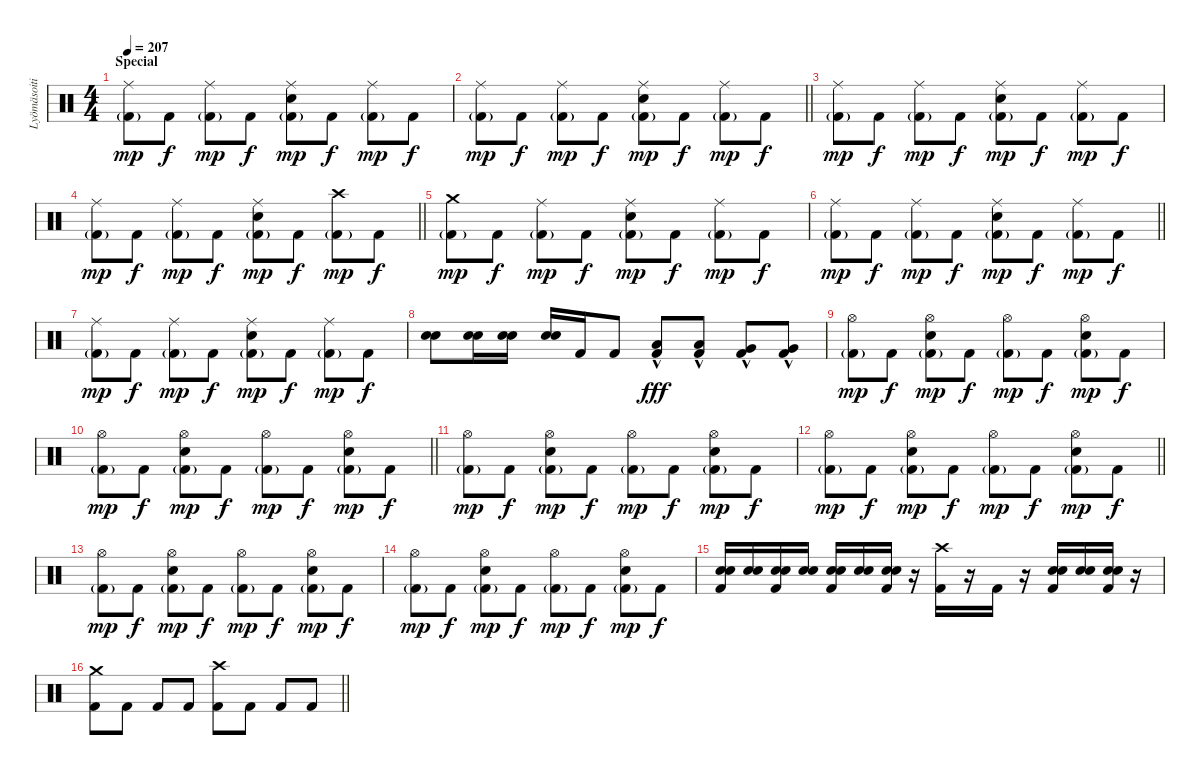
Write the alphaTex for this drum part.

\track ("Lyömäsoitin" "Lyömäsoiti") {instrument percussion}
\staff {score}
\articulation defaults
\ts (4 4)
\section ("" "Special")
\tempo 207
\clef neutral
\ks c
("Ride (middle)" "Kick (hit) 2"{g}).8{dy mp} "Kick (hit) 2".8{dy f} ("Ride (middle)" "Kick (hit) 2"{g}).8{dy mp} "Kick (hit) 2".8{dy f} ("Ride (middle)" "Snare (hit) 2" "Kick (hit) 2"{g}).8{dy mp} "Kick (hit) 2".8{dy f} ("Ride (middle)" "Kick (hit) 2"{g}).8{dy mp} "Kick (hit) 2".8{dy f} |
\barLineRight lightlight
("Ride (middle)" "Kick (hit) 2"{g}).8{dy mp} "Kick (hit) 2".8{dy f} ("Ride (middle)" "Kick (hit) 2"{g}).8{dy mp} "Kick (hit) 2".8{dy f} ("Ride (middle)" "Snare (hit) 2" "Kick (hit) 2"{g}).8{dy mp} "Kick (hit) 2".8{dy f} ("Ride (middle)" "Kick (hit) 2"{g}).8{dy mp} "Kick (hit) 2".8{dy f} |
("Ride (middle)" "Kick (hit) 2"{g}).8{dy mp} "Kick (hit) 2".8{dy f} ("Ride (middle)" "Kick (hit) 2"{g}).8{dy mp} "Kick (hit) 2".8{dy f} ("Ride (middle)" "Snare (hit) 2" "Kick (hit) 2"{g}).8{dy mp} "Kick (hit) 2".8{dy f} ("Ride (middle)" "Kick (hit) 2"{g}).8{dy mp} "Kick (hit) 2".8{dy f} |
\barLineRight lightlight
("Ride (middle)" "Kick (hit) 2"{g}).8{dy mp} "Kick (hit) 2".8{dy f} ("Ride (middle)" "Kick (hit) 2"{g}).8{dy mp} "Kick (hit) 2".8{dy f} ("Ride (middle)" "Snare (hit) 2" "Kick (hit) 2"{g}).8{dy mp} "Kick (hit) 2".8{dy f} ("Crash high (hit)" "Kick (hit) 2"{g}).8{dy mp} "Kick (hit) 2".8{dy f} |
("Crash medium (hit)" "Kick (hit) 2"{g}).8{dy mp} "Kick (hit) 2".8{dy f} ("Ride (middle)" "Kick (hit) 2"{g}).8{dy mp} "Kick (hit) 2".8{dy f} ("Ride (middle)" "Snare (hit) 2" "Kick (hit) 2"{g}).8{dy mp} "Kick (hit) 2".8{dy f} ("Ride (middle)" "Kick (hit) 2"{g}).8{dy mp} "Kick (hit) 2".8{dy f} |
\barLineRight lightlight
("Ride (middle)" "Kick (hit) 2"{g}).8{dy mp} "Kick (hit) 2".8{dy f} ("Ride (middle)" "Kick (hit) 2"{g}).8{dy mp} "Kick (hit) 2".8{dy f} ("Ride (middle)" "Snare (hit) 2" "Kick (hit) 2"{g}).8{dy mp} "Kick (hit) 2".8{dy f} ("Ride (middle)" "Kick (hit) 2"{g}).8{dy mp} "Kick (hit) 2".8{dy f} |
("Ride (middle)" "Kick (hit) 2"{g}).8{dy mp} "Kick (hit) 2".8{dy f} ("Ride (middle)" "Kick (hit) 2"{g}).8{dy mp} "Kick (hit) 2".8{dy f} ("Ride (middle)" "Snare (hit) 2" "Kick (hit) 2"{g}).8{dy mp} "Kick (hit) 2".8{dy f} ("Ride (middle)" "Kick (hit) 2"{g}).8{dy mp} "Kick (hit) 2".8{dy f} |
("Snare (hit) 2" "Electric Snare (hit)").8 ("Snare (hit) 2" "Electric Snare (hit)").16 ("Snare (hit) 2" "Electric Snare (hit)").16 ("Snare (hit) 2" "Electric Snare (hit)").16 "Kick (hit) 2".16 "Kick (hit) 2".8 ("Low Floor Tom (hit)"{hac} "Kick (hit) 2").8{dy fff} ("Low Floor Tom (hit)"{hac} "Kick (hit) 2").8 ("Very Low Tom (hit)"{hac} "Kick (hit) 2").8 ("Very Low Tom (hit)"{hac} "Kick (hit) 2").8 |
("Hi-Hat (open)" "Kick (hit) 2"{g}).8{dy mp} "Kick (hit) 2".8{dy f} ("Hi-Hat (open)" "Snare (hit) 2" "Kick (hit) 2"{g}).8{dy mp} "Kick (hit) 2".8{dy f} ("Hi-Hat (open)" "Kick (hit) 2"{g}).8{dy mp} "Kick (hit) 2".8{dy f} ("Hi-Hat (open)" "Snare (hit) 2" "Kick (hit) 2"{g}).8{dy mp} "Kick (hit) 2".8{dy f} |
\barLineRight lightlight
("Hi-Hat (open)" "Kick (hit) 2"{g}).8{dy mp} "Kick (hit) 2".8{dy f} ("Hi-Hat (open)" "Snare (hit) 2" "Kick (hit) 2"{g}).8{dy mp} "Kick (hit) 2".8{dy f} ("Hi-Hat (open)" "Kick (hit) 2"{g}).8{dy mp} "Kick (hit) 2".8{dy f} ("Hi-Hat (open)" "Snare (hit) 2" "Kick (hit) 2"{g}).8{dy mp} "Kick (hit) 2".8{dy f} |
("Hi-Hat (open)" "Kick (hit) 2"{g}).8{dy mp} "Kick (hit) 2".8{dy f} ("Hi-Hat (open)" "Snare (hit) 2" "Kick (hit) 2"{g}).8{dy mp} "Kick (hit) 2".8{dy f} ("Hi-Hat (open)" "Kick (hit) 2"{g}).8{dy mp} "Kick (hit) 2".8{dy f} ("Hi-Hat (open)" "Snare (hit) 2" "Kick (hit) 2"{g}).8{dy mp} "Kick (hit) 2".8{dy f} |
\barLineRight lightlight
("Hi-Hat (open)" "Kick (hit) 2"{g}).8{dy mp} "Kick (hit) 2".8{dy f} ("Hi-Hat (open)" "Snare (hit) 2" "Kick (hit) 2"{g}).8{dy mp} "Kick (hit) 2".8{dy f} ("Hi-Hat (open)" "Kick (hit) 2"{g}).8{dy mp} "Kick (hit) 2".8{dy f} ("Hi-Hat (open)" "Snare (hit) 2" "Kick (hit) 2"{g}).8{dy mp} "Kick (hit) 2".8{dy f} |
("Hi-Hat (open)" "Kick (hit) 2"{g}).8{dy mp} "Kick (hit) 2".8{dy f} ("Hi-Hat (open)" "Snare (hit) 2" "Kick (hit) 2"{g}).8{dy mp} "Kick (hit) 2".8{dy f} ("Hi-Hat (open)" "Kick (hit) 2"{g}).8{dy mp} "Kick (hit) 2".8{dy f} ("Hi-Hat (open)" "Snare (hit) 2" "Kick (hit) 2"{g}).8{dy mp} "Kick (hit) 2".8{dy f} |
("Hi-Hat (open)" "Kick (hit) 2"{g}).8{dy mp} "Kick (hit) 2".8{dy f} ("Hi-Hat (open)" "Snare (hit) 2" "Kick (hit) 2"{g}).8{dy mp} "Kick (hit) 2".8{dy f} ("Hi-Hat (open)" "Kick (hit) 2"{g}).8{dy mp} "Kick (hit) 2".8{dy f} ("Hi-Hat (open)" "Snare (hit) 2" "Kick (hit) 2"{g}).8{dy mp} "Kick (hit) 2".8{dy f} |
("Snare (hit) 2" "Electric Snare (hit)" "Kick (hit) 2").16 ("Snare (hit) 2" "Electric Snare (hit)").16 ("Snare (hit) 2" "Electric Snare (hit)" "Kick (hit) 2").16 ("Snare (hit) 2" "Electric Snare (hit)").16 ("Snare (hit) 2" "Electric Snare (hit)" "Kick (hit) 2").16 ("Snare (hit) 2" "Electric Snare (hit)").16 ("Snare (hit) 2" "Electric Snare (hit)" "Kick (hit) 2").16 r.16 ("Crash high (hit)" "Kick (hit) 2").16 r.16 "Kick (hit) 2".16 r.16 ("Snare (hit) 2" "Electric Snare (hit)" "Kick (hit) 2").16 ("Snare (hit) 2" "Electric Snare (hit)").16 ("Snare (hit) 2" "Electric Snare (hit)" "Kick (hit) 2").16 r.16 |
\barLineRight lightlight
("Crash medium (hit)" "Kick (hit) 2").8 "Kick (hit) 2".8 "Kick (hit) 2".8 "Kick (hit) 2".8 ("Crash high (hit)" "Kick (hit) 2").8 "Kick (hit) 2".8 "Kick (hit) 2".8 "Kick (hit) 2".8
